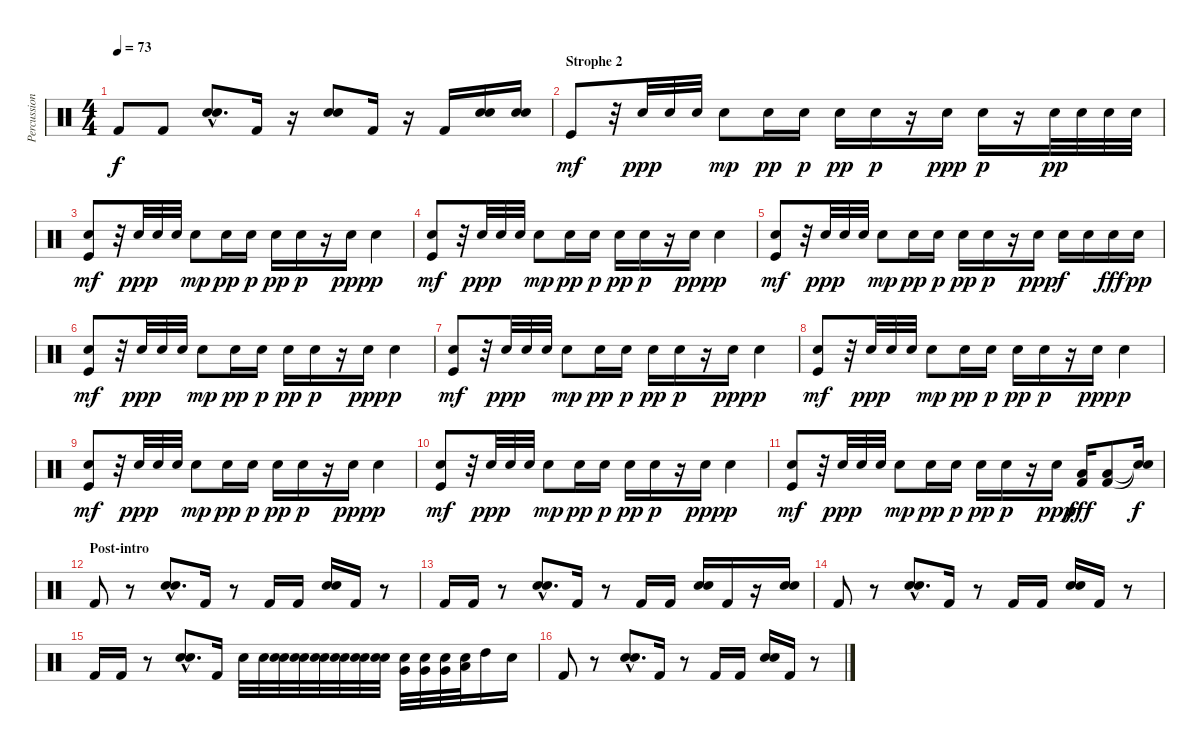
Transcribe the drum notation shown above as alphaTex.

\track ("Percussions" "Percussion") {instrument percussion}
\staff {score}
\articulation defaults
\ts (4 4)
\tempo 73
\clef neutral
\ks c "Kick (hit) 2".8{dy f} "Kick (hit) 2".8
("Electric Snare (hit)"{hac} "Snare (hit) 2"{hac}).8{d} "Kick (hit) 2".16 r.16 ("Electric Snare (hit)" "Snare (hit) 2").8 "Kick (hit) 2".16 r.16 "Kick (hit) 2".16 ("Electric Snare (hit)" "Snare (hit) 2").16 ("Electric Snare (hit)" "Snare (hit) 2").16 |
\section ("" "Strophe 2")
"Kick (hit)".8{dy mf} r.32 "Electric Snare (hit)".32{dy ppp} "Electric Snare (hit)".32 "Electric Snare (hit)".32 "Electric Snare (hit)".8{dy mp} "Electric Snare (hit)".16{dy pp} "Electric Snare (hit)".16{dy p} "Electric Snare (hit)".16{dy pp} "Electric Snare (hit)".16{dy p} r.16 "Electric Snare (hit)".16{dy ppp} "Electric Snare (hit)".16{dy p} r.16 "Electric Snare (hit)".32{dy pp} "Electric Snare (hit)".32 "Electric Snare (hit)".32 "Electric Snare (hit)".32 |
("Electric Snare (hit)" "Kick (hit)").8{dy mf} r.32 "Electric Snare (hit)".32{dy ppp} "Electric Snare (hit)".32 "Electric Snare (hit)".32 "Electric Snare (hit)".8{dy mp} "Electric Snare (hit)".16{dy pp} "Electric Snare (hit)".16{dy p} "Electric Snare (hit)".16{dy pp} "Electric Snare (hit)".16{dy p} r.16 "Electric Snare (hit)".16{dy ppp} "Electric Snare (hit)".4{dy p} |
("Electric Snare (hit)" "Kick (hit)").8{dy mf} r.32 "Electric Snare (hit)".32{dy ppp} "Electric Snare (hit)".32 "Electric Snare (hit)".32 "Electric Snare (hit)".8{dy mp} "Electric Snare (hit)".16{dy pp} "Electric Snare (hit)".16{dy p} "Electric Snare (hit)".16{dy pp} "Electric Snare (hit)".16{dy p} r.16 "Electric Snare (hit)".16{dy ppp} "Electric Snare (hit)".4{dy p} |
("Electric Snare (hit)" "Kick (hit)").8{dy mf} r.32 "Electric Snare (hit)".32{dy ppp} "Electric Snare (hit)".32 "Electric Snare (hit)".32 "Electric Snare (hit)".8{dy mp} "Electric Snare (hit)".16{dy pp} "Electric Snare (hit)".16{dy p} "Electric Snare (hit)".16{dy pp} "Electric Snare (hit)".16{dy p} r.16 "Electric Snare (hit)".16{dy ppp} "Electric Snare (hit)".16{dy f} "Electric Snare (hit)".16 "Electric Snare (hit)".16{dy fff} "Electric Snare (hit)".16{dy pp} |
("Electric Snare (hit)" "Kick (hit)").8{dy mf} r.32 "Electric Snare (hit)".32{dy ppp} "Electric Snare (hit)".32 "Electric Snare (hit)".32 "Electric Snare (hit)".8{dy mp} "Electric Snare (hit)".16{dy pp} "Electric Snare (hit)".16{dy p} "Electric Snare (hit)".16{dy pp} "Electric Snare (hit)".16{dy p} r.16 "Electric Snare (hit)".16{dy ppp} "Electric Snare (hit)".4{dy p} |
("Electric Snare (hit)" "Kick (hit)").8{dy mf} r.32 "Electric Snare (hit)".32{dy ppp} "Electric Snare (hit)".32 "Electric Snare (hit)".32 "Electric Snare (hit)".8{dy mp} "Electric Snare (hit)".16{dy pp} "Electric Snare (hit)".16{dy p} "Electric Snare (hit)".16{dy pp} "Electric Snare (hit)".16{dy p} r.16 "Electric Snare (hit)".16{dy ppp} "Electric Snare (hit)".4{dy p} |
("Electric Snare (hit)" "Kick (hit)").8{dy mf} r.32 "Electric Snare (hit)".32{dy ppp} "Electric Snare (hit)".32 "Electric Snare (hit)".32 "Electric Snare (hit)".8{dy mp} "Electric Snare (hit)".16{dy pp} "Electric Snare (hit)".16{dy p} "Electric Snare (hit)".16{dy pp} "Electric Snare (hit)".16{dy p} r.16 "Electric Snare (hit)".16{dy ppp} "Electric Snare (hit)".4{dy p} |
("Electric Snare (hit)" "Kick (hit)").8{dy mf} r.32 "Electric Snare (hit)".32{dy ppp} "Electric Snare (hit)".32 "Electric Snare (hit)".32 "Electric Snare (hit)".8{dy mp} "Electric Snare (hit)".16{dy pp} "Electric Snare (hit)".16{dy p} "Electric Snare (hit)".16{dy pp} "Electric Snare (hit)".16{dy p} r.16 "Electric Snare (hit)".16{dy ppp} "Electric Snare (hit)".4{dy p} |
("Electric Snare (hit)" "Kick (hit)").8{dy mf} r.32 "Electric Snare (hit)".32{dy ppp} "Electric Snare (hit)".32 "Electric Snare (hit)".32 "Electric Snare (hit)".8{dy mp} "Electric Snare (hit)".16{dy pp} "Electric Snare (hit)".16{dy p} "Electric Snare (hit)".16{dy pp} "Electric Snare (hit)".16{dy p} r.16 "Electric Snare (hit)".16{dy ppp} "Electric Snare (hit)".4{dy p} |
("Electric Snare (hit)" "Kick (hit)").8{dy mf} r.32 "Electric Snare (hit)".32{dy ppp} "Electric Snare (hit)".32 "Electric Snare (hit)".32 "Electric Snare (hit)".8{dy mp} "Electric Snare (hit)".16{dy pp} "Electric Snare (hit)".16{dy p} "Electric Snare (hit)".16{dy pp} "Electric Snare (hit)".16{dy p} r.16 "Electric Snare (hit)".16{dy ppp} ("Low Floor Tom (hit)" "Kick (hit) 2").16{dy fff} ("Low Tom (hit)" "Kick (hit) 2").8 ("Snare (hit)"{t} "Snare (hit)"{t}).16{dy f} |
\section ("" "Post-intro")
"Kick (hit) 2".8 r.8 ("Electric Snare (hit)"{hac} "Snare (hit) 2"{hac}).8{d} "Kick (hit) 2".16 r.8 "Kick (hit) 2".16 "Kick (hit) 2".16 ("Electric Snare (hit)" "Snare (hit) 2").16 "Kick (hit) 2".16 r.8 |
"Kick (hit) 2".16 "Kick (hit) 2".16 r.8 ("Electric Snare (hit)"{hac} "Snare (hit) 2"{hac}).8{d} "Kick (hit) 2".16 r.8 "Kick (hit) 2".16 "Kick (hit) 2".16 ("Electric Snare (hit)" "Snare (hit) 2").16 "Kick (hit) 2".16 r.16 ("Electric Snare (hit)" "Snare (hit) 2").16 |
"Kick (hit) 2".8 r.8 ("Electric Snare (hit)"{hac} "Snare (hit) 2"{hac}).8{d} "Kick (hit) 2".16 r.8 "Kick (hit) 2".16 "Kick (hit) 2".16 ("Electric Snare (hit)" "Snare (hit) 2").16 "Kick (hit) 2".16 r.8 |
"Kick (hit) 2".16 "Kick (hit) 2".16 r.8 ("Electric Snare (hit)"{hac} "Snare (hit) 2"{hac}).8{d} "Kick (hit) 2".16 "Snare (hit) 2".32 "Snare (hit) 2".32 ("Electric Snare (hit)" "Snare (hit) 2").32 ("Electric Snare (hit)" "Snare (hit) 2").32 ("Electric Snare (hit)" "Snare (hit) 2").32 ("Electric Snare (hit)" "Snare (hit) 2").32 ("Electric Snare (hit)" "Snare (hit) 2").32 ("Electric Snare (hit)" "Snare (hit) 2").32 ("Electric Snare (hit)" "Very Low Tom (hit)").32 ("Electric Snare (hit)" "Very Low Tom (hit)").32 ("Electric Snare (hit)" "Very Low Tom (hit)").32 ("Electric Snare (hit)" "Low Floor Tom (hit)").32 "High Tom (hit)".16 "Electric Snare (hit)".16 |
"Kick (hit) 2".8 r.8 ("Electric Snare (hit)"{hac} "Snare (hit) 2"{hac}).8{d} "Kick (hit) 2".16 r.8 "Kick (hit) 2".16 "Kick (hit) 2".16 ("Electric Snare (hit)" "Snare (hit) 2").16 "Kick (hit) 2".16 r.8
